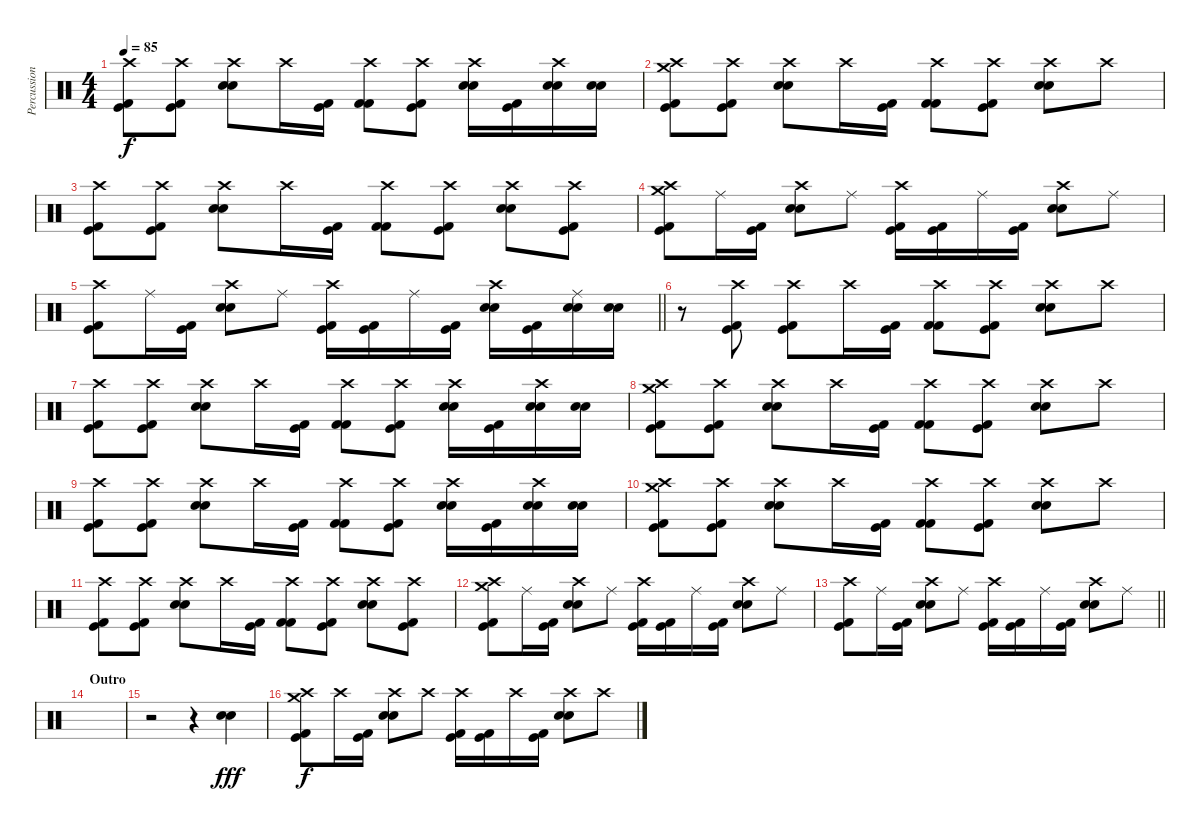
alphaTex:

\track ("Percussion" "Percussion") {instrument percussion}
\staff {score}
\articulation defaults
\ts (4 4)
\tempo 85
\clef neutral
\ks c
("Kick (hit) 2" "Kick (hit)" "Crash high (hit)").8{dy f} ("Kick (hit) 2" "Kick (hit)" "Crash high (hit)").8 ("Electric Snare (hit)" "Snare (hit) 2" "Crash high (hit)").8 "Crash high (hit)".16 ("Kick (hit) 2" "Kick (hit)").16 ("Kick (hit) 2" "Kick (hit) 2" "Crash high (hit)").8 ("Kick (hit) 2" "Kick (hit)" "Crash high (hit)").8 ("Electric Snare (hit)" "Snare (hit) 2" "Crash high (hit)").16 ("Kick (hit) 2" "Kick (hit)").16 ("Electric Snare (hit)" "Snare (hit) 2" "Crash high (hit)").16 ("Electric Snare (hit)" "Snare (hit) 2").16 |
("Kick (hit) 2" "Kick (hit)" "Crash high (hit)" "Crash medium (hit)").8 ("Kick (hit) 2" "Kick (hit)" "Crash high (hit)").8 ("Electric Snare (hit)" "Snare (hit) 2" "Crash high (hit)").8 "Crash high (hit)".16 ("Kick (hit) 2" "Kick (hit)").16 ("Kick (hit) 2" "Kick (hit) 2" "Crash high (hit)").8 ("Kick (hit) 2" "Kick (hit)" "Crash high (hit)").8 ("Electric Snare (hit)" "Snare (hit) 2" "Crash high (hit)").8 "Crash high (hit)".8 |
("Kick (hit) 2" "Kick (hit)" "Crash high (hit)").8 ("Kick (hit) 2" "Kick (hit)" "Crash high (hit)").8 ("Electric Snare (hit)" "Snare (hit) 2" "Crash high (hit)").8 "Crash high (hit)".16 ("Kick (hit) 2" "Kick (hit)").16 ("Kick (hit) 2" "Kick (hit) 2" "Crash high (hit)").8 ("Kick (hit) 2" "Kick (hit)" "Crash high (hit)").8 ("Electric Snare (hit)" "Snare (hit) 2" "Crash high (hit)").8 ("Kick (hit) 2" "Kick (hit)" "Crash high (hit)").8 |
("Kick (hit) 2" "Kick (hit)" "Crash high (hit)" "Crash medium (hit)").8 "Ride (middle)".16 ("Kick (hit) 2" "Kick (hit)").16 ("Electric Snare (hit)" "Snare (hit) 2" "Crash high (hit)").8 "Ride (middle)".8 ("Kick (hit) 2" "Kick (hit)" "Crash high (hit)").16 ("Kick (hit) 2" "Kick (hit)").16 "Ride (middle)".16 ("Kick (hit) 2" "Kick (hit)").16 ("Electric Snare (hit)" "Snare (hit) 2" "Crash high (hit)").8 "Ride (middle)".8 |
\barLineRight lightlight
("Kick (hit) 2" "Kick (hit)" "Crash high (hit)").8 "Ride (middle)".16 ("Kick (hit) 2" "Kick (hit)").16 ("Electric Snare (hit)" "Snare (hit) 2" "Crash high (hit)").8 "Ride (middle)".8 ("Kick (hit) 2" "Kick (hit)" "Crash high (hit)").16 ("Kick (hit) 2" "Kick (hit)").16 "Ride (middle)".16 ("Kick (hit) 2" "Kick (hit)").16 ("Electric Snare (hit)" "Snare (hit) 2" "Crash high (hit)").16 ("Kick (hit) 2" "Kick (hit)").16 ("Electric Snare (hit)" "Snare (hit) 2" "Ride (middle)").16 ("Electric Snare (hit)" "Snare (hit) 2").16 |
r.8 ("Kick (hit) 2" "Kick (hit)" "Crash high (hit)").8 ("Kick (hit) 2" "Kick (hit)" "Crash high (hit)").8 "Crash high (hit)".16 ("Kick (hit) 2" "Kick (hit)").16 ("Kick (hit) 2" "Kick (hit) 2" "Crash high (hit)").8 ("Kick (hit) 2" "Kick (hit)" "Crash high (hit)").8 ("Electric Snare (hit)" "Snare (hit) 2" "Crash high (hit)").8 "Crash high (hit)".8 |
("Kick (hit) 2" "Kick (hit)" "Crash high (hit)").8 ("Kick (hit) 2" "Kick (hit)" "Crash high (hit)").8 ("Electric Snare (hit)" "Snare (hit) 2" "Crash high (hit)").8 "Crash high (hit)".16 ("Kick (hit) 2" "Kick (hit)").16 ("Kick (hit) 2" "Kick (hit) 2" "Crash high (hit)").8 ("Kick (hit) 2" "Kick (hit)" "Crash high (hit)").8 ("Electric Snare (hit)" "Snare (hit) 2" "Crash high (hit)").16 ("Kick (hit) 2" "Kick (hit)").16 ("Electric Snare (hit)" "Snare (hit) 2" "Crash high (hit)").16 ("Electric Snare (hit)" "Snare (hit) 2").16 |
("Kick (hit) 2" "Kick (hit)" "Crash high (hit)" "Crash medium (hit)").8 ("Kick (hit) 2" "Kick (hit)" "Crash high (hit)").8 ("Electric Snare (hit)" "Snare (hit) 2" "Crash high (hit)").8 "Crash high (hit)".16 ("Kick (hit) 2" "Kick (hit)").16 ("Kick (hit) 2" "Kick (hit) 2" "Crash high (hit)").8 ("Kick (hit) 2" "Kick (hit)" "Crash high (hit)").8 ("Electric Snare (hit)" "Snare (hit) 2" "Crash high (hit)").8 "Crash high (hit)".8 |
("Kick (hit) 2" "Kick (hit)" "Crash high (hit)").8 ("Kick (hit) 2" "Kick (hit)" "Crash high (hit)").8 ("Electric Snare (hit)" "Snare (hit) 2" "Crash high (hit)").8 "Crash high (hit)".16 ("Kick (hit) 2" "Kick (hit)").16 ("Kick (hit) 2" "Kick (hit) 2" "Crash high (hit)").8 ("Kick (hit) 2" "Kick (hit)" "Crash high (hit)").8 ("Electric Snare (hit)" "Snare (hit) 2" "Crash high (hit)").16 ("Kick (hit) 2" "Kick (hit)").16 ("Electric Snare (hit)" "Snare (hit) 2" "Crash high (hit)").16 ("Electric Snare (hit)" "Snare (hit) 2").16 |
("Kick (hit) 2" "Kick (hit)" "Crash high (hit)" "Crash medium (hit)").8 ("Kick (hit) 2" "Kick (hit)" "Crash high (hit)").8 ("Electric Snare (hit)" "Snare (hit) 2" "Crash high (hit)").8 "Crash high (hit)".16 ("Kick (hit) 2" "Kick (hit)").16 ("Kick (hit) 2" "Kick (hit) 2" "Crash high (hit)").8 ("Kick (hit) 2" "Kick (hit)" "Crash high (hit)").8 ("Electric Snare (hit)" "Snare (hit) 2" "Crash high (hit)").8 "Crash high (hit)".8 |
("Kick (hit) 2" "Kick (hit)" "Crash high (hit)").8 ("Kick (hit) 2" "Kick (hit)" "Crash high (hit)").8 ("Electric Snare (hit)" "Snare (hit) 2" "Crash high (hit)").8 "Crash high (hit)".16 ("Kick (hit) 2" "Kick (hit)").16 ("Kick (hit) 2" "Kick (hit) 2" "Crash high (hit)").8 ("Kick (hit) 2" "Kick (hit)" "Crash high (hit)").8 ("Electric Snare (hit)" "Snare (hit) 2" "Crash high (hit)").8 ("Kick (hit) 2" "Kick (hit)" "Crash high (hit)").8 |
("Kick (hit) 2" "Kick (hit)" "Crash high (hit)" "Crash medium (hit)").8 "Ride (middle)".16 ("Kick (hit) 2" "Kick (hit)").16 ("Electric Snare (hit)" "Snare (hit) 2" "Crash high (hit)").8 "Ride (middle)".8 ("Kick (hit) 2" "Kick (hit)" "Crash high (hit)").16 ("Kick (hit) 2" "Kick (hit)").16 "Ride (middle)".16 ("Kick (hit) 2" "Kick (hit)").16 ("Electric Snare (hit)" "Snare (hit) 2" "Crash high (hit)").8 "Ride (middle)".8 |
\barLineRight lightlight
("Kick (hit) 2" "Kick (hit)" "Crash high (hit)").8 "Ride (middle)".16 ("Kick (hit) 2" "Kick (hit)").16 ("Electric Snare (hit)" "Snare (hit) 2" "Crash high (hit)").8 "Ride (middle)".8 ("Kick (hit) 2" "Kick (hit)" "Crash high (hit)").16 ("Kick (hit) 2" "Kick (hit)").16 "Ride (middle)".16 ("Kick (hit) 2" "Kick (hit)").16 ("Electric Snare (hit)" "Snare (hit) 2" "Crash high (hit)").8 "Ride (middle)".8 |
\section ("" "Outro")
|
r.2 r.4 ("Electric Snare (hit)" "Snare (hit) 2").4{dy fff} |
("Kick (hit) 2" "Kick (hit)" "Crash high (hit)" "Crash medium (hit)").8{dy f} "Crash high (hit)".16 ("Kick (hit) 2" "Kick (hit)").16 ("Electric Snare (hit)" "Snare (hit) 2" "Crash high (hit)").8 "Crash high (hit)".8 ("Kick (hit) 2" "Kick (hit)" "Crash high (hit)").16 ("Kick (hit) 2" "Kick (hit)").16 "Crash high (hit)".16 ("Kick (hit) 2" "Kick (hit)").16 ("Electric Snare (hit)" "Snare (hit) 2" "Crash high (hit)").8 "Crash high (hit)".8
